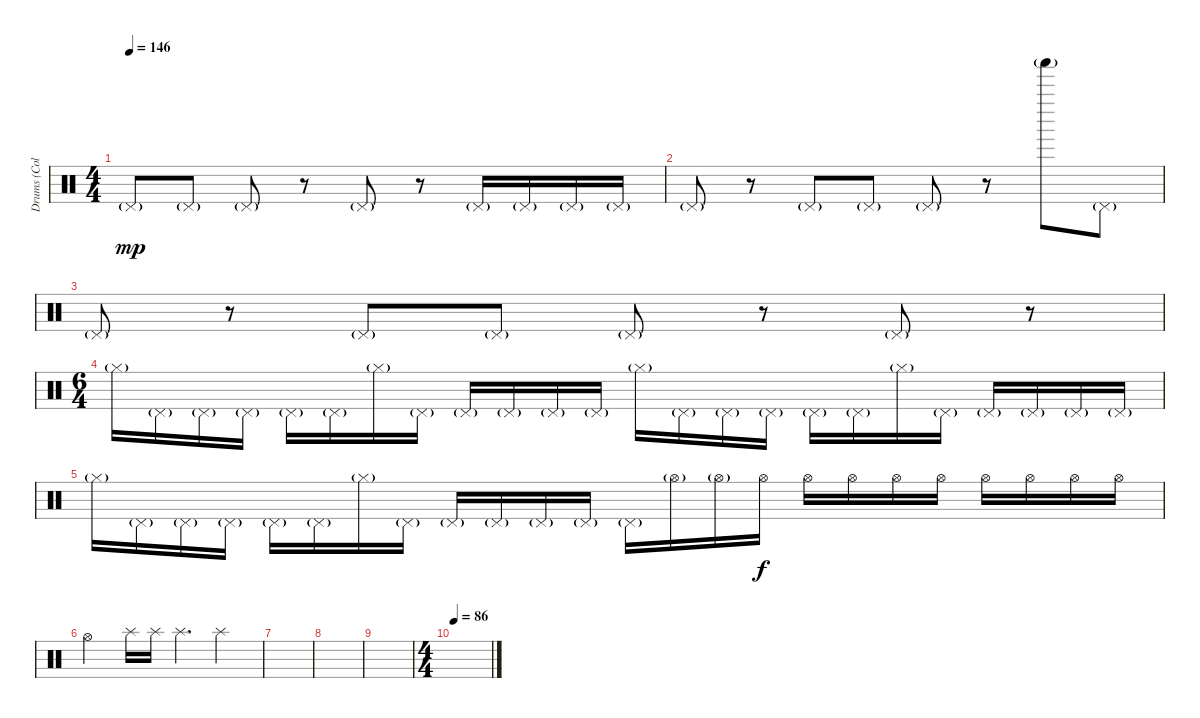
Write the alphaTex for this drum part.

\track ("Drums (Collins)" "Drums (Col") {instrument percussion}
\staff {score}
\articulation defaults
\ts (4 4)
\tempo 146
\clef neutral
\ks c "Pedal Hi-Hat (hit)"{g}.8{dy mp} "Pedal Hi-Hat (hit)"{g}.8 "Pedal Hi-Hat (hit)"{g}.8
r.8 "Pedal Hi-Hat (hit)"{g}.8 r.8 "Pedal Hi-Hat (hit)"{g}.16 "Pedal Hi-Hat (hit)"{g}.16 "Pedal Hi-Hat (hit)"{g}.16 "Pedal Hi-Hat (hit)"{g}.16 |
"Pedal Hi-Hat (hit)"{g}.8 r.8 "Pedal Hi-Hat (hit)"{g}.8 "Pedal Hi-Hat (hit)"{g}.8 "Pedal Hi-Hat (hit)"{g}.8 r.8 "Shaker (hit)"{g}.8 "Pedal Hi-Hat (hit)"{g}.8 |
"Pedal Hi-Hat (hit)"{g}.8 r.8 "Pedal Hi-Hat (hit)"{g}.8 "Pedal Hi-Hat (hit)"{g}.8 "Pedal Hi-Hat (hit)"{g}.8 r.8 "Pedal Hi-Hat (hit)"{g}.8 r.8 |
\ts (6 4)
"Hi-Hat (closed)"{g}.16{volume 6} "Pedal Hi-Hat (hit)"{g}.16 "Pedal Hi-Hat (hit)"{g}.16 "Pedal Hi-Hat (hit)"{g}.16 "Pedal Hi-Hat (hit)"{g}.16 "Pedal Hi-Hat (hit)"{g}.16 "Hi-Hat (closed)"{g}.16 "Pedal Hi-Hat (hit)"{g}.16 "Pedal Hi-Hat (hit)"{g}.16 "Pedal Hi-Hat (hit)"{g}.16 "Pedal Hi-Hat (hit)"{g}.16 "Pedal Hi-Hat (hit)"{g}.16 "Hi-Hat (closed)"{g}.16 "Pedal Hi-Hat (hit)"{g}.16 "Pedal Hi-Hat (hit)"{g}.16 "Pedal Hi-Hat (hit)"{g}.16 "Pedal Hi-Hat (hit)"{g}.16 "Pedal Hi-Hat (hit)"{g}.16 "Hi-Hat (closed)"{g}.16 "Pedal Hi-Hat (hit)"{g}.16 "Pedal Hi-Hat (hit)"{g}.16 "Pedal Hi-Hat (hit)"{g}.16 "Pedal Hi-Hat (hit)"{g}.16 "Pedal Hi-Hat (hit)"{g}.16 |
"Hi-Hat (closed)"{g}.16 "Pedal Hi-Hat (hit)"{g}.16 "Pedal Hi-Hat (hit)"{g}.16 "Pedal Hi-Hat (hit)"{g}.16 "Pedal Hi-Hat (hit)"{g}.16 "Pedal Hi-Hat (hit)"{g}.16 "Hi-Hat (closed)"{g}.16 "Pedal Hi-Hat (hit)"{g}.16 "Pedal Hi-Hat (hit)"{g}.16 "Pedal Hi-Hat (hit)"{g}.16 "Pedal Hi-Hat (hit)"{g}.16 "Pedal Hi-Hat (hit)"{g}.16 "Pedal Hi-Hat (hit)"{g}.16 "Hi-Hat (open)"{g}.16 "Hi-Hat (open)"{g}.16 "Hi-Hat (open)".16{dy f} "Hi-Hat (open)".16 "Hi-Hat (open)".16 "Hi-Hat (open)".16 "Hi-Hat (open)".16 "Hi-Hat (open)".16 "Hi-Hat (open)".16 "Hi-Hat (open)".16 "Hi-Hat (open)".16 |
"Hi-Hat (open)".2 "Splash (hit)".16 "Splash (hit)".16 "Splash (hit)".4{d} "Splash (hit)".2 |
|
|
|
\ts (4 4)
\tempo 86
